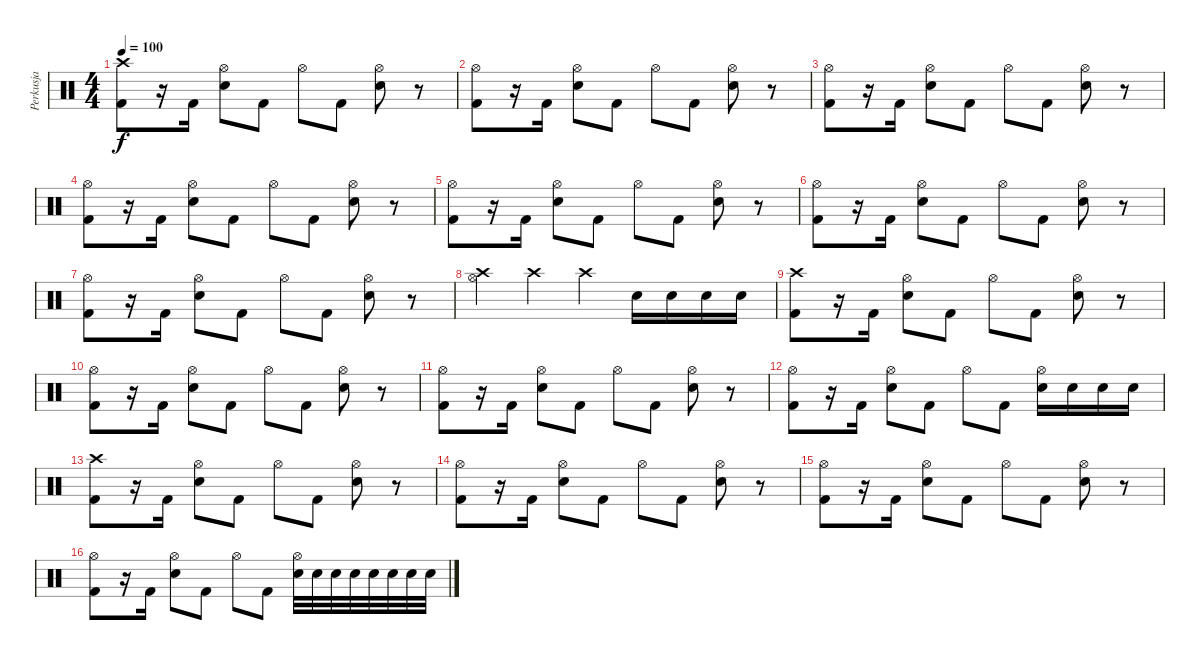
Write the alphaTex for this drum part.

\track ("Perkusja" "Perkusja") {instrument percussion}
\staff {score}
\articulation defaults
\ts (4 4)
\tempo 100
\clef neutral
\ks c
("Crash high (hit)" "Kick (hit) 2").8{dy f} r.16 "Kick (hit) 2".16 ("Hi-Hat (open)" "Electric Snare (hit)").8 "Kick (hit) 2".8 "Hi-Hat (open)".8 "Kick (hit) 2".8 ("Hi-Hat (open)" "Electric Snare (hit)").8 r.8 |
("Hi-Hat (open)" "Kick (hit) 2").8 r.16 "Kick (hit) 2".16 ("Hi-Hat (open)" "Electric Snare (hit)").8 "Kick (hit) 2".8 "Hi-Hat (open)".8 "Kick (hit) 2".8 ("Hi-Hat (open)" "Electric Snare (hit)").8 r.8 |
("Hi-Hat (open)" "Kick (hit) 2").8 r.16 "Kick (hit) 2".16 ("Hi-Hat (open)" "Electric Snare (hit)").8 "Kick (hit) 2".8 "Hi-Hat (open)".8 "Kick (hit) 2".8 ("Hi-Hat (open)" "Electric Snare (hit)").8 r.8 |
("Hi-Hat (open)" "Kick (hit) 2").8 r.16 "Kick (hit) 2".16 ("Hi-Hat (open)" "Electric Snare (hit)").8 "Kick (hit) 2".8 "Hi-Hat (open)".8 "Kick (hit) 2".8 ("Hi-Hat (open)" "Electric Snare (hit)").8 r.8 |
("Hi-Hat (open)" "Kick (hit) 2").8 r.16 "Kick (hit) 2".16 ("Hi-Hat (open)" "Electric Snare (hit)").8 "Kick (hit) 2".8 "Hi-Hat (open)".8 "Kick (hit) 2".8 ("Hi-Hat (open)" "Electric Snare (hit)").8 r.8 |
("Hi-Hat (open)" "Kick (hit) 2").8 r.16 "Kick (hit) 2".16 ("Hi-Hat (open)" "Electric Snare (hit)").8 "Kick (hit) 2".8 "Hi-Hat (open)".8 "Kick (hit) 2".8 ("Hi-Hat (open)" "Electric Snare (hit)").8 r.8 |
("Hi-Hat (open)" "Kick (hit) 2").8 r.16 "Kick (hit) 2".16 ("Hi-Hat (open)" "Electric Snare (hit)").8 "Kick (hit) 2".8 "Hi-Hat (open)".8 "Kick (hit) 2".8 ("Hi-Hat (open)" "Electric Snare (hit)").8 r.8 |
("Crash high (hit)" "Hi-Hat (open)").4 "Crash high (hit)".4 "Crash high (hit)".4 "Electric Snare (hit)".16 "Electric Snare (hit)".16 "Electric Snare (hit)".16 "Electric Snare (hit)".16 |
("Crash high (hit)" "Kick (hit) 2").8 r.16 "Kick (hit) 2".16 ("Hi-Hat (open)" "Electric Snare (hit)").8 "Kick (hit) 2".8 "Hi-Hat (open)".8 "Kick (hit) 2".8 ("Hi-Hat (open)" "Electric Snare (hit)").8 r.8 |
("Hi-Hat (open)" "Kick (hit) 2").8 r.16 "Kick (hit) 2".16 ("Hi-Hat (open)" "Electric Snare (hit)").8 "Kick (hit) 2".8 "Hi-Hat (open)".8 "Kick (hit) 2".8 ("Hi-Hat (open)" "Electric Snare (hit)").8 r.8 |
("Hi-Hat (open)" "Kick (hit) 2").8 r.16 "Kick (hit) 2".16 ("Hi-Hat (open)" "Electric Snare (hit)").8 "Kick (hit) 2".8 "Hi-Hat (open)".8 "Kick (hit) 2".8 ("Hi-Hat (open)" "Electric Snare (hit)").8 r.8 |
("Hi-Hat (open)" "Kick (hit) 2").8 r.16 "Kick (hit) 2".16 ("Hi-Hat (open)" "Electric Snare (hit)").8 "Kick (hit) 2".8 "Hi-Hat (open)".8 "Kick (hit) 2".8 ("Hi-Hat (open)" "Electric Snare (hit)").16 "Electric Snare (hit)".16 "Electric Snare (hit)".16 "Electric Snare (hit)".16 |
("Crash high (hit)" "Kick (hit) 2").8 r.16 "Kick (hit) 2".16 ("Hi-Hat (open)" "Electric Snare (hit)").8 "Kick (hit) 2".8 "Hi-Hat (open)".8 "Kick (hit) 2".8 ("Hi-Hat (open)" "Electric Snare (hit)").8 r.8 |
("Hi-Hat (open)" "Kick (hit) 2").8 r.16 "Kick (hit) 2".16 ("Hi-Hat (open)" "Electric Snare (hit)").8 "Kick (hit) 2".8 "Hi-Hat (open)".8 "Kick (hit) 2".8 ("Hi-Hat (open)" "Electric Snare (hit)").8 r.8 |
("Hi-Hat (open)" "Kick (hit) 2").8 r.16 "Kick (hit) 2".16 ("Hi-Hat (open)" "Electric Snare (hit)").8 "Kick (hit) 2".8 "Hi-Hat (open)".8 "Kick (hit) 2".8 ("Hi-Hat (open)" "Electric Snare (hit)").8 r.8 |
("Hi-Hat (open)" "Kick (hit) 2").8 r.16 "Kick (hit) 2".16 ("Hi-Hat (open)" "Electric Snare (hit)").8 "Kick (hit) 2".8 "Hi-Hat (open)".8 "Kick (hit) 2".8 ("Hi-Hat (open)" "Electric Snare (hit)").32 "Electric Snare (hit)".32 "Electric Snare (hit)".32 "Electric Snare (hit)".32 "Electric Snare (hit)".32 "Electric Snare (hit)".32 "Electric Snare (hit)".32 "Electric Snare (hit)".32
